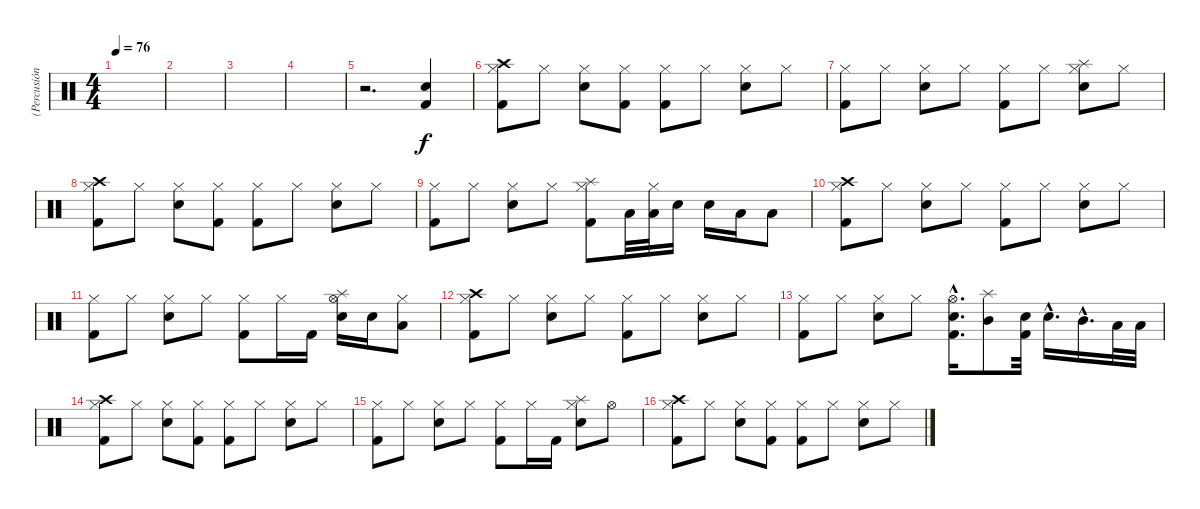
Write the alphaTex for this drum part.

\track ("(Percusión)" "(Percusión") {instrument percussion}
\staff {score}
\articulation defaults
\ts (4 4)
\tempo 76
\clef neutral
\ks c
|
|
|
|
r.2{d} ("Snare (hit) 2" "Kick (hit) 2").4 |
("Hi-Hat (closed)" "Crash high (hit)" "Kick (hit) 2").8 "Hi-Hat (closed)".8 ("Hi-Hat (closed)" "Snare (hit) 2").8 ("Hi-Hat (closed)" "Kick (hit) 2").8 ("Hi-Hat (closed)" "Kick (hit) 2").8 "Hi-Hat (closed)".8 ("Hi-Hat (closed)" "Snare (hit) 2").8 "Hi-Hat (closed)".8 |
("Hi-Hat (closed)" "Kick (hit) 2").8 "Hi-Hat (closed)".8 ("Hi-Hat (closed)" "Snare (hit) 2").8 "Hi-Hat (closed)".8 ("Hi-Hat (closed)" "Kick (hit) 2").8 "Hi-Hat (closed)".8 ("Splash (hit)" "Hi-Hat (closed)" "Snare (hit) 2").8 "Hi-Hat (closed)".8 |
("Hi-Hat (closed)" "Crash high (hit)" "Kick (hit) 2").8 "Hi-Hat (closed)".8 ("Hi-Hat (closed)" "Snare (hit) 2").8 ("Hi-Hat (closed)" "Kick (hit) 2").8 ("Hi-Hat (closed)" "Kick (hit) 2").8 "Hi-Hat (closed)".8 ("Hi-Hat (closed)" "Snare (hit) 2").8 "Hi-Hat (closed)".8 |
("Hi-Hat (closed)" "Kick (hit) 2").8 "Hi-Hat (closed)".8 ("Hi-Hat (closed)" "Snare (hit) 2").8 "Hi-Hat (closed)".8 ("Hi-Hat (closed)" "Splash (hit)" "Kick (hit) 2").8 "Low Floor Tom (hit)".32 ("Hi-Hat (closed)" "Low Floor Tom (hit)").32 "Snare (hit) 2".16 "Snare (hit) 2".16 "Low Tom (hit)".16 "Low Floor Tom (hit)".8 |
("Hi-Hat (closed)" "Crash high (hit)" "Kick (hit) 2").8 "Hi-Hat (closed)".8 ("Hi-Hat (closed)" "Snare (hit) 2").8 "Hi-Hat (closed)".8 ("Hi-Hat (closed)" "Kick (hit) 2").8 "Hi-Hat (closed)".8 ("Hi-Hat (closed)" "Snare (hit) 2").8 "Hi-Hat (closed)".8 |
("Hi-Hat (closed)" "Kick (hit) 2").8 "Hi-Hat (closed)".8 ("Hi-Hat (closed)" "Snare (hit) 2").8 "Hi-Hat (closed)".8 ("Hi-Hat (closed)" "Kick (hit) 2").8 "Hi-Hat (closed)".16 "Kick (hit) 2".16 ("Splash (hit)" "Hi-Hat (open)" "Snare (hit) 2").16 "Snare (hit) 2".16 ("Hi-Hat (closed)" "Low Tom (hit)").8 |
("Hi-Hat (closed)" "Crash high (hit)" "Kick (hit) 2").8 "Hi-Hat (closed)".8 ("Hi-Hat (closed)" "Snare (hit) 2").8 "Hi-Hat (closed)".8 ("Hi-Hat (closed)" "Kick (hit) 2").8 "Hi-Hat (closed)".8 ("Hi-Hat (closed)" "Snare (hit) 2").8 "Hi-Hat (closed)".8 |
("Hi-Hat (closed)" "Kick (hit) 2").8 "Hi-Hat (closed)".8 ("Hi-Hat (closed)" "Snare (hit) 2").8 "Hi-Hat (closed)".8 ("Hi-Hat (open)"{hac} "Snare (hit) 2"{hac} "Kick (hit) 2"{hac}).16{d} ("Splash (hit)" "Mid Tom (hit)").8 ("Snare (hit) 2" "Kick (hit) 2").32 "Snare (hit) 2"{hac}.16{d} "Mid Tom (hit)"{hac}.16{d} "Low Tom (hit)".32 "Low Floor Tom (hit)".32 |
("Hi-Hat (closed)" "Crash high (hit)" "Kick (hit) 2").8 "Hi-Hat (closed)".8 ("Hi-Hat (closed)" "Snare (hit) 2").8 ("Hi-Hat (closed)" "Kick (hit) 2").8 ("Hi-Hat (closed)" "Kick (hit) 2").8 "Hi-Hat (closed)".8 ("Hi-Hat (closed)" "Snare (hit) 2").8 "Hi-Hat (closed)".8 |
("Hi-Hat (closed)" "Kick (hit) 2").8 "Hi-Hat (closed)".8 ("Hi-Hat (closed)" "Snare (hit) 2").8 "Hi-Hat (closed)".8 ("Hi-Hat (closed)" "Kick (hit) 2").8 "Hi-Hat (closed)".16 "Kick (hit) 2".16 ("Hi-Hat (closed)" "Splash (hit)" "Snare (hit) 2").8 "Hi-Hat (open)".8 |
("Hi-Hat (closed)" "Crash high (hit)" "Kick (hit) 2").8 "Hi-Hat (closed)".8 ("Hi-Hat (closed)" "Snare (hit) 2").8 ("Hi-Hat (closed)" "Kick (hit) 2").8 ("Hi-Hat (closed)" "Kick (hit) 2").8 "Hi-Hat (closed)".8 ("Hi-Hat (closed)" "Snare (hit) 2").8 "Hi-Hat (closed)".8
